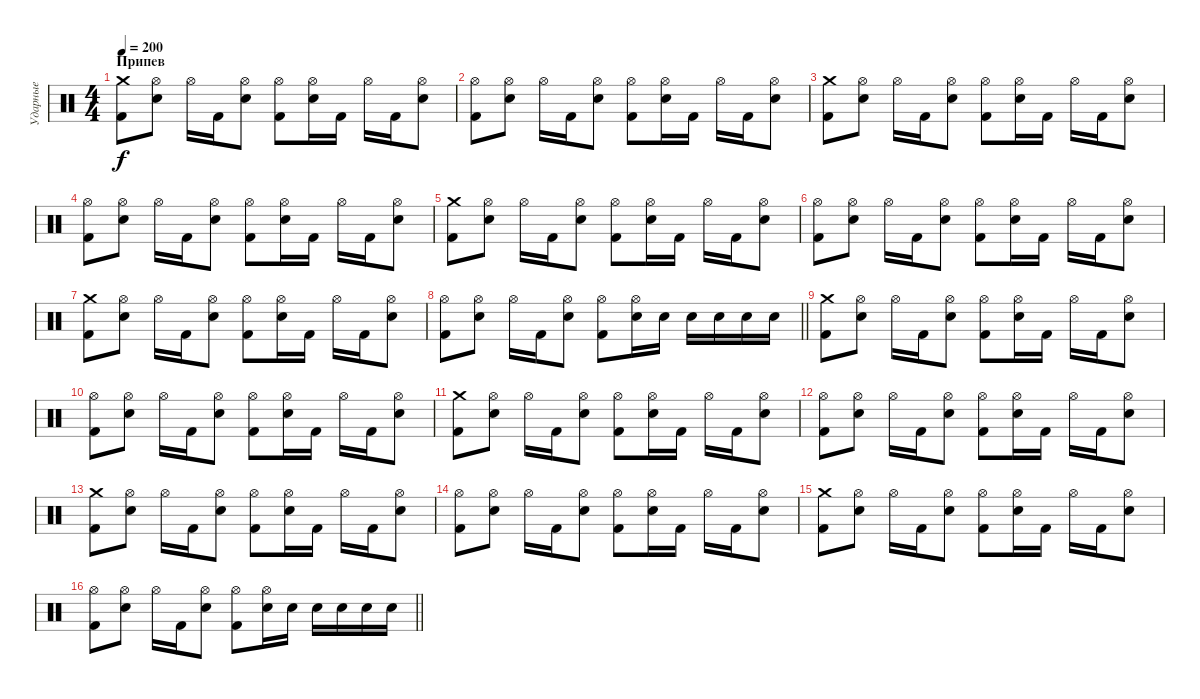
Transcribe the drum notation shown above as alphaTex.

\track ("Ударные" "Ударные") {instrument percussion}
\staff {score}
\articulation defaults
\ts (4 4)
\section ("" "Припев")
\tempo 200
\clef neutral
\ks c
("Kick (hit) 2" "Crash medium (hit)").8{dy f} ("Electric Snare (hit)" "Hi-Hat (open)").8 "Hi-Hat (open)".16 "Kick (hit) 2".16 ("Electric Snare (hit)" "Hi-Hat (open)").8 ("Kick (hit) 2" "Hi-Hat (open)").8 ("Electric Snare (hit)" "Hi-Hat (open)").16 "Kick (hit) 2".16 "Hi-Hat (open)".16 "Kick (hit) 2".16 ("Electric Snare (hit)" "Hi-Hat (open)").8 |
("Kick (hit) 2" "Hi-Hat (open)").8 ("Electric Snare (hit)" "Hi-Hat (open)").8 "Hi-Hat (open)".16 "Kick (hit) 2".16 ("Electric Snare (hit)" "Hi-Hat (open)").8 ("Kick (hit) 2" "Hi-Hat (open)").8 ("Electric Snare (hit)" "Hi-Hat (open)").16 "Kick (hit) 2".16 "Hi-Hat (open)".16 "Kick (hit) 2".16 ("Electric Snare (hit)" "Hi-Hat (open)").8 |
("Kick (hit) 2" "Crash medium (hit)").8 ("Electric Snare (hit)" "Hi-Hat (open)").8 "Hi-Hat (open)".16 "Kick (hit) 2".16 ("Electric Snare (hit)" "Hi-Hat (open)").8 ("Kick (hit) 2" "Hi-Hat (open)").8 ("Electric Snare (hit)" "Hi-Hat (open)").16 "Kick (hit) 2".16 "Hi-Hat (open)".16 "Kick (hit) 2".16 ("Electric Snare (hit)" "Hi-Hat (open)").8 |
("Kick (hit) 2" "Hi-Hat (open)").8 ("Electric Snare (hit)" "Hi-Hat (open)").8 "Hi-Hat (open)".16 "Kick (hit) 2".16 ("Electric Snare (hit)" "Hi-Hat (open)").8 ("Kick (hit) 2" "Hi-Hat (open)").8 ("Electric Snare (hit)" "Hi-Hat (open)").16 "Kick (hit) 2".16 "Hi-Hat (open)".16 "Kick (hit) 2".16 ("Electric Snare (hit)" "Hi-Hat (open)").8 |
("Kick (hit) 2" "Crash medium (hit)").8 ("Electric Snare (hit)" "Hi-Hat (open)").8 "Hi-Hat (open)".16 "Kick (hit) 2".16 ("Electric Snare (hit)" "Hi-Hat (open)").8 ("Kick (hit) 2" "Hi-Hat (open)").8 ("Electric Snare (hit)" "Hi-Hat (open)").16 "Kick (hit) 2".16 "Hi-Hat (open)".16 "Kick (hit) 2".16 ("Electric Snare (hit)" "Hi-Hat (open)").8 |
("Kick (hit) 2" "Hi-Hat (open)").8 ("Electric Snare (hit)" "Hi-Hat (open)").8 "Hi-Hat (open)".16 "Kick (hit) 2".16 ("Electric Snare (hit)" "Hi-Hat (open)").8 ("Kick (hit) 2" "Hi-Hat (open)").8 ("Electric Snare (hit)" "Hi-Hat (open)").16 "Kick (hit) 2".16 "Hi-Hat (open)".16 "Kick (hit) 2".16 ("Electric Snare (hit)" "Hi-Hat (open)").8 |
("Kick (hit) 2" "Crash medium (hit)").8 ("Electric Snare (hit)" "Hi-Hat (open)").8 "Hi-Hat (open)".16 "Kick (hit) 2".16 ("Electric Snare (hit)" "Hi-Hat (open)").8 ("Kick (hit) 2" "Hi-Hat (open)").8 ("Electric Snare (hit)" "Hi-Hat (open)").16 "Kick (hit) 2".16 "Hi-Hat (open)".16 "Kick (hit) 2".16 ("Electric Snare (hit)" "Hi-Hat (open)").8 |
\barLineRight lightlight
("Kick (hit) 2" "Hi-Hat (open)").8 ("Electric Snare (hit)" "Hi-Hat (open)").8 "Hi-Hat (open)".16 "Kick (hit) 2".16 ("Electric Snare (hit)" "Hi-Hat (open)").8 ("Kick (hit) 2" "Hi-Hat (open)").8 ("Electric Snare (hit)" "Hi-Hat (open)").16 "Electric Snare (hit)".16 "Electric Snare (hit)".16 "Electric Snare (hit)".16 "Electric Snare (hit)".16 "Electric Snare (hit)".16 |
("Kick (hit) 2" "Crash medium (hit)").8 ("Electric Snare (hit)" "Hi-Hat (open)").8 "Hi-Hat (open)".16 "Kick (hit) 2".16 ("Electric Snare (hit)" "Hi-Hat (open)").8 ("Kick (hit) 2" "Hi-Hat (open)").8 ("Electric Snare (hit)" "Hi-Hat (open)").16 "Kick (hit) 2".16 "Hi-Hat (open)".16 "Kick (hit) 2".16 ("Electric Snare (hit)" "Hi-Hat (open)").8 |
("Kick (hit) 2" "Hi-Hat (open)").8 ("Electric Snare (hit)" "Hi-Hat (open)").8 "Hi-Hat (open)".16 "Kick (hit) 2".16 ("Electric Snare (hit)" "Hi-Hat (open)").8 ("Kick (hit) 2" "Hi-Hat (open)").8 ("Electric Snare (hit)" "Hi-Hat (open)").16 "Kick (hit) 2".16 "Hi-Hat (open)".16 "Kick (hit) 2".16 ("Electric Snare (hit)" "Hi-Hat (open)").8 |
("Kick (hit) 2" "Crash medium (hit)").8 ("Electric Snare (hit)" "Hi-Hat (open)").8 "Hi-Hat (open)".16 "Kick (hit) 2".16 ("Electric Snare (hit)" "Hi-Hat (open)").8 ("Kick (hit) 2" "Hi-Hat (open)").8 ("Electric Snare (hit)" "Hi-Hat (open)").16 "Kick (hit) 2".16 "Hi-Hat (open)".16 "Kick (hit) 2".16 ("Electric Snare (hit)" "Hi-Hat (open)").8 |
("Kick (hit) 2" "Hi-Hat (open)").8 ("Electric Snare (hit)" "Hi-Hat (open)").8 "Hi-Hat (open)".16 "Kick (hit) 2".16 ("Electric Snare (hit)" "Hi-Hat (open)").8 ("Kick (hit) 2" "Hi-Hat (open)").8 ("Electric Snare (hit)" "Hi-Hat (open)").16 "Kick (hit) 2".16 "Hi-Hat (open)".16 "Kick (hit) 2".16 ("Electric Snare (hit)" "Hi-Hat (open)").8 |
("Kick (hit) 2" "Crash medium (hit)").8 ("Electric Snare (hit)" "Hi-Hat (open)").8 "Hi-Hat (open)".16 "Kick (hit) 2".16 ("Electric Snare (hit)" "Hi-Hat (open)").8 ("Kick (hit) 2" "Hi-Hat (open)").8 ("Electric Snare (hit)" "Hi-Hat (open)").16 "Kick (hit) 2".16 "Hi-Hat (open)".16 "Kick (hit) 2".16 ("Electric Snare (hit)" "Hi-Hat (open)").8 |
("Kick (hit) 2" "Hi-Hat (open)").8 ("Electric Snare (hit)" "Hi-Hat (open)").8 "Hi-Hat (open)".16 "Kick (hit) 2".16 ("Electric Snare (hit)" "Hi-Hat (open)").8 ("Kick (hit) 2" "Hi-Hat (open)").8 ("Electric Snare (hit)" "Hi-Hat (open)").16 "Kick (hit) 2".16 "Hi-Hat (open)".16 "Kick (hit) 2".16 ("Electric Snare (hit)" "Hi-Hat (open)").8 |
("Kick (hit) 2" "Crash medium (hit)").8 ("Electric Snare (hit)" "Hi-Hat (open)").8 "Hi-Hat (open)".16 "Kick (hit) 2".16 ("Electric Snare (hit)" "Hi-Hat (open)").8 ("Kick (hit) 2" "Hi-Hat (open)").8 ("Electric Snare (hit)" "Hi-Hat (open)").16 "Kick (hit) 2".16 "Hi-Hat (open)".16 "Kick (hit) 2".16 ("Electric Snare (hit)" "Hi-Hat (open)").8 |
\barLineRight lightlight
("Kick (hit) 2" "Hi-Hat (open)").8 ("Electric Snare (hit)" "Hi-Hat (open)").8 "Hi-Hat (open)".16 "Kick (hit) 2".16 ("Electric Snare (hit)" "Hi-Hat (open)").8 ("Kick (hit) 2" "Hi-Hat (open)").8 ("Electric Snare (hit)" "Hi-Hat (open)").16 "Electric Snare (hit)".16 "Electric Snare (hit)".16 "Electric Snare (hit)".16 "Electric Snare (hit)".16 "Electric Snare (hit)".16
